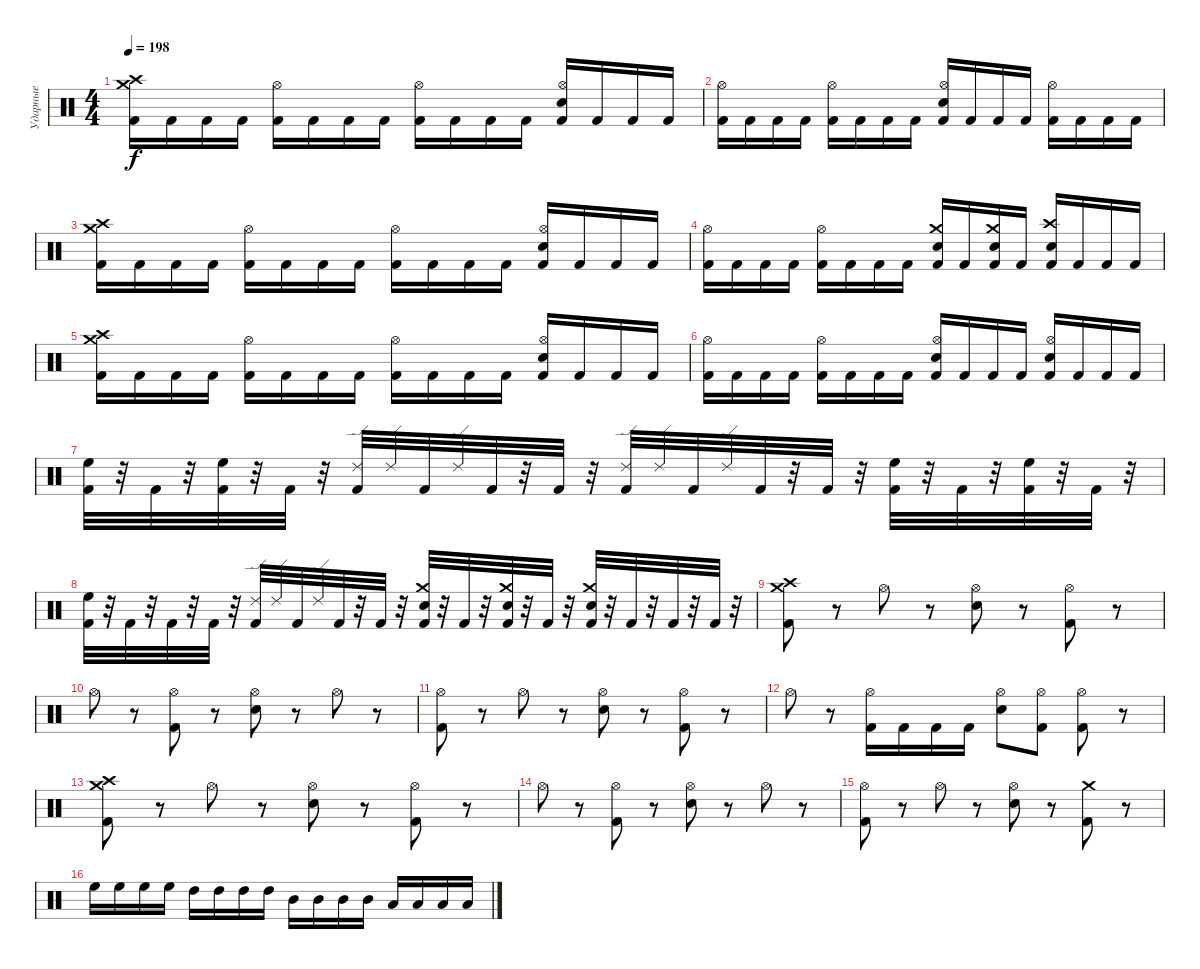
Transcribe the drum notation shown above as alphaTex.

\track ("Ударные" "Ударные") {instrument percussion}
\staff {score}
\articulation defaults
\ts (4 4)
\tempo 198
\clef neutral
\ks c
("Kick (hit) 2" "Crash medium (hit)" "Crash high (hit)").16{dy f} "Kick (hit) 2".16 "Kick (hit) 2".16 "Kick (hit) 2".16 ("Kick (hit) 2" "Hi-Hat (open)").16 "Kick (hit) 2".16 "Kick (hit) 2".16 "Kick (hit) 2".16 ("Kick (hit) 2" "Hi-Hat (open)").16 "Kick (hit) 2".16 "Kick (hit) 2".16 "Kick (hit) 2".16 ("Kick (hit) 2" "Hi-Hat (open)" "Electric Snare (hit)").16 "Kick (hit) 2".16 "Kick (hit) 2".16 "Kick (hit) 2".16 |
("Kick (hit) 2" "Hi-Hat (open)").16 "Kick (hit) 2".16 "Kick (hit) 2".16 "Kick (hit) 2".16 ("Kick (hit) 2" "Hi-Hat (open)").16 "Kick (hit) 2".16 "Kick (hit) 2".16 "Kick (hit) 2".16 ("Kick (hit) 2" "Hi-Hat (open)" "Electric Snare (hit)").16 "Kick (hit) 2".16 "Kick (hit) 2".16 "Kick (hit) 2".16 ("Kick (hit) 2" "Hi-Hat (open)").16 "Kick (hit) 2".16 "Kick (hit) 2".16 "Kick (hit) 2".16 |
("Kick (hit) 2" "Crash medium (hit)" "Crash high (hit)").16 "Kick (hit) 2".16 "Kick (hit) 2".16 "Kick (hit) 2".16 ("Kick (hit) 2" "Hi-Hat (open)").16 "Kick (hit) 2".16 "Kick (hit) 2".16 "Kick (hit) 2".16 ("Kick (hit) 2" "Hi-Hat (open)").16 "Kick (hit) 2".16 "Kick (hit) 2".16 "Kick (hit) 2".16 ("Kick (hit) 2" "Hi-Hat (open)" "Electric Snare (hit)").16 "Kick (hit) 2".16 "Kick (hit) 2".16 "Kick (hit) 2".16 |
("Kick (hit) 2" "Hi-Hat (open)").16 "Kick (hit) 2".16 "Kick (hit) 2".16 "Kick (hit) 2".16 ("Kick (hit) 2" "Hi-Hat (open)").16 "Kick (hit) 2".16 "Kick (hit) 2".16 "Kick (hit) 2".16 ("Kick (hit) 2" "Crash medium (hit)" "Electric Snare (hit)").16 "Kick (hit) 2".16 ("Kick (hit) 2" "Crash medium (hit)" "Electric Snare (hit)").16 "Kick (hit) 2".16 ("Kick (hit) 2" "Crash high (hit)" "Electric Snare (hit)").16 "Kick (hit) 2".16 "Kick (hit) 2".16 "Kick (hit) 2".16 |
("Kick (hit) 2" "Crash medium (hit)" "Crash high (hit)").16 "Kick (hit) 2".16 "Kick (hit) 2".16 "Kick (hit) 2".16 ("Kick (hit) 2" "Hi-Hat (open)").16 "Kick (hit) 2".16 "Kick (hit) 2".16 "Kick (hit) 2".16 ("Kick (hit) 2" "Hi-Hat (open)").16 "Kick (hit) 2".16 "Kick (hit) 2".16 "Kick (hit) 2".16 ("Kick (hit) 2" "Hi-Hat (open)" "Electric Snare (hit)").16 "Kick (hit) 2".16 "Kick (hit) 2".16 "Kick (hit) 2".16 |
("Kick (hit) 2" "Hi-Hat (open)").16 "Kick (hit) 2".16 "Kick (hit) 2".16 "Kick (hit) 2".16 ("Kick (hit) 2" "Hi-Hat (open)").16 "Kick (hit) 2".16 "Kick (hit) 2".16 "Kick (hit) 2".16 ("Kick (hit) 2" "Hi-Hat (open)" "Electric Snare (hit)").16 "Kick (hit) 2".16 "Kick (hit) 2".16 "Kick (hit) 2".16 ("Kick (hit) 2" "Hi-Hat (open)" "Electric Snare (hit)").16 "Kick (hit) 2".16 "Kick (hit) 2".16 "Kick (hit) 2".16 |
("Kick (hit) 2" "High Floor Tom (hit)").32 r.32 "Kick (hit) 2".32 r.32 ("Kick (hit) 2" "High Floor Tom (hit)").32 r.32 "Kick (hit) 2".32 r.32 ("Kick (hit) 2" "Ride (edge) 2").32 "Ride (edge) 2".32 "Kick (hit) 2".32 "Ride (edge) 2".32 "Kick (hit) 2".32 r.32 "Kick (hit) 2".32 r.32 ("Kick (hit) 2" "Ride (edge) 2").32 "Ride (edge) 2".32 "Kick (hit) 2".32 "Ride (edge) 2".32 "Kick (hit) 2".32 r.32 "Kick (hit) 2".32 r.32 ("Kick (hit) 2" "High Floor Tom (hit)").32 r.32 "Kick (hit) 2".32 r.32 ("Kick (hit) 2" "High Floor Tom (hit)").32 r.32 "Kick (hit) 2".32 r.32 |
("Kick (hit) 2" "High Floor Tom (hit)").32 r.32 "Kick (hit) 2".32 r.32 "Kick (hit) 2".32 r.32 "Kick (hit) 2".32 r.32 ("Kick (hit) 2" "Ride (edge) 2").32 "Ride (edge) 2".32 "Kick (hit) 2".32 "Ride (edge) 2".32 "Kick (hit) 2".32 r.32 "Kick (hit) 2".32 r.32 ("Kick (hit) 2" "Electric Snare (hit)" "Crash medium (hit)").32 r.32 "Kick (hit) 2".32 r.32 ("Kick (hit) 2" "Electric Snare (hit)" "Crash medium (hit)").32 r.32 "Kick (hit) 2".32 r.32 ("Kick (hit) 2" "Electric Snare (hit)" "Crash medium (hit)").32 r.32 "Kick (hit) 2".32 r.32 "Kick (hit) 2".32 r.32 "Kick (hit) 2".32 r.32 |
("Crash medium (hit)" "Crash high (hit)" "Kick (hit) 2").8 r.8 "Hi-Hat (open)".8 r.8 ("Hi-Hat (open)" "Electric Snare (hit)").8 r.8 ("Hi-Hat (open)" "Kick (hit) 2").8 r.8 |
"Hi-Hat (open)".8 r.8 ("Hi-Hat (open)" "Kick (hit) 2").8 r.8 ("Hi-Hat (open)" "Electric Snare (hit)").8 r.8 "Hi-Hat (open)".8 r.8 |
("Hi-Hat (open)" "Kick (hit) 2").8 r.8 "Hi-Hat (open)".8 r.8 ("Hi-Hat (open)" "Electric Snare (hit)").8 r.8 ("Hi-Hat (open)" "Kick (hit) 2").8 r.8 |
"Hi-Hat (open)".8 r.8 ("Hi-Hat (open)" "Kick (hit) 2").16 "Kick (hit) 2".16 "Kick (hit) 2".16 "Kick (hit) 2".16 ("Hi-Hat (open)" "Electric Snare (hit)").8 ("Hi-Hat (open)" "Kick (hit) 2").8 ("Hi-Hat (open)" "Kick (hit) 2").8 r.8 |
("Crash medium (hit)" "Crash high (hit)" "Kick (hit) 2").8 r.8 "Hi-Hat (open)".8 r.8 ("Hi-Hat (open)" "Electric Snare (hit)").8 r.8 ("Hi-Hat (open)" "Kick (hit) 2").8 r.8 |
"Hi-Hat (open)".8 r.8 ("Hi-Hat (open)" "Kick (hit) 2").8 r.8 ("Hi-Hat (open)" "Electric Snare (hit)").8 r.8 "Hi-Hat (open)".8 r.8 |
("Hi-Hat (open)" "Kick (hit) 2").8 r.8 "Hi-Hat (open)".8 r.8 ("Hi-Hat (open)" "Electric Snare (hit)").8 r.8 ("Crash medium (hit)" "Kick (hit) 2").8 r.8 |
"High Floor Tom (hit)".16 "High Floor Tom (hit)".16 "High Floor Tom (hit)".16 "High Floor Tom (hit)".16 "High Tom (hit)".16 "High Tom (hit)".16 "High Tom (hit)".16 "High Tom (hit)".16 "Mid Tom (hit)".16 "Mid Tom (hit)".16 "Mid Tom (hit)".16 "Mid Tom (hit)".16 "Low Tom (hit)".16 "Low Tom (hit)".16 "Low Tom (hit)".16 "Low Tom (hit)".16
